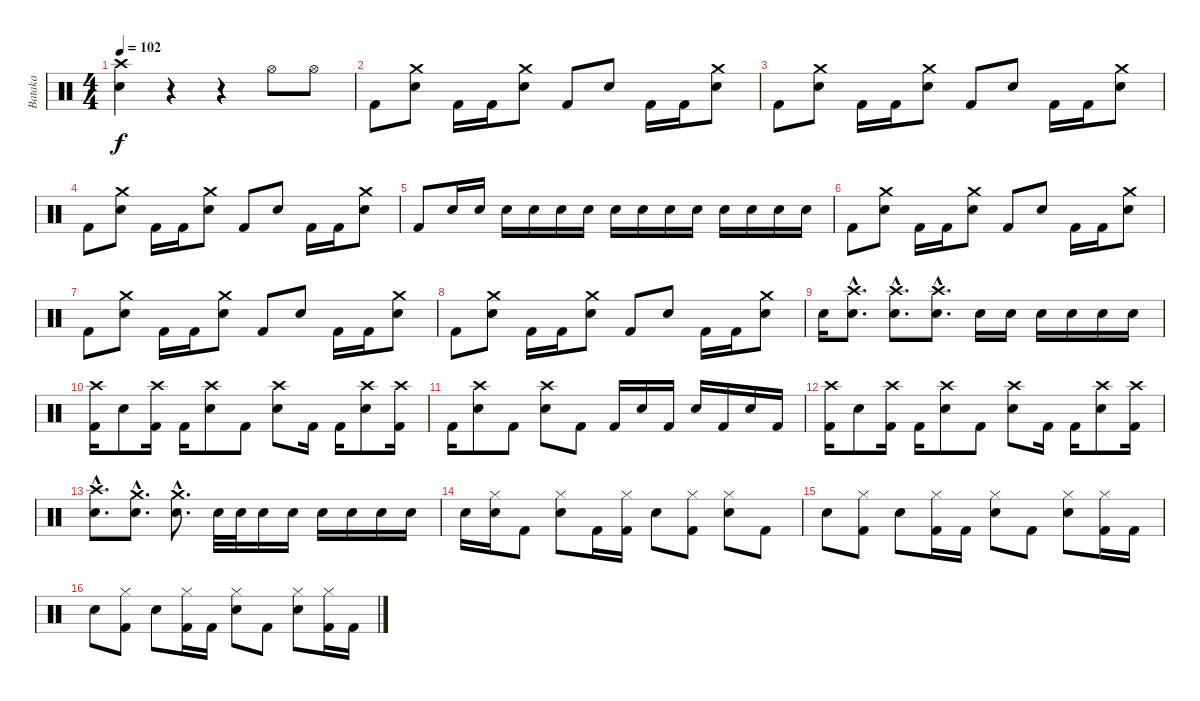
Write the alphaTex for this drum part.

\track ("Bataka" "Bataka") {instrument percussion}
\staff {score}
\articulation defaults
\ts (4 4)
\tempo 102
\clef neutral
\ks c
("Snare (hit) 2" "Crash high (hit)").4{dy f} r.4 r.4 "Hi-Hat (open)".8 "Hi-Hat (open)".8 |
"Kick (hit) 2".8 ("Crash medium (hit)" "Snare (hit) 2").8 "Kick (hit) 2".16 "Kick (hit) 2".16 ("Crash medium (hit)" "Snare (hit) 2").8 "Kick (hit) 2".8 "Snare (hit) 2".8 "Kick (hit) 2".16 "Kick (hit) 2".16 ("Crash medium (hit)" "Snare (hit) 2").8 |
"Kick (hit) 2".8 ("Crash medium (hit)" "Snare (hit) 2").8 "Kick (hit) 2".16 "Kick (hit) 2".16 ("Crash medium (hit)" "Snare (hit) 2").8 "Kick (hit) 2".8 "Snare (hit) 2".8 "Kick (hit) 2".16 "Kick (hit) 2".16 ("Crash medium (hit)" "Snare (hit) 2").8 |
"Kick (hit) 2".8 ("Crash medium (hit)" "Snare (hit) 2").8 "Kick (hit) 2".16 "Kick (hit) 2".16 ("Crash medium (hit)" "Snare (hit) 2").8 "Kick (hit) 2".8 "Snare (hit) 2".8 "Kick (hit) 2".16 "Kick (hit) 2".16 ("Crash medium (hit)" "Snare (hit) 2").8 |
"Kick (hit) 2".8 "Snare (hit) 2".16 "Snare (hit) 2".16 "Snare (hit) 2".16 "Snare (hit) 2".16 "Snare (hit) 2".16 "Snare (hit) 2".16 "Snare (hit) 2".16 "Snare (hit) 2".16 "Snare (hit) 2".16 "Snare (hit) 2".16 "Snare (hit) 2".16 "Snare (hit) 2".16 "Snare (hit) 2".16 "Snare (hit) 2".16 |
"Kick (hit) 2".8 ("Crash medium (hit)" "Snare (hit) 2").8 "Kick (hit) 2".16 "Kick (hit) 2".16 ("Crash medium (hit)" "Snare (hit) 2").8 "Kick (hit) 2".8 "Snare (hit) 2".8 "Kick (hit) 2".16 "Kick (hit) 2".16 ("Crash medium (hit)" "Snare (hit) 2").8 |
"Kick (hit) 2".8 ("Crash medium (hit)" "Snare (hit) 2").8 "Kick (hit) 2".16 "Kick (hit) 2".16 ("Crash medium (hit)" "Snare (hit) 2").8 "Kick (hit) 2".8 "Snare (hit) 2".8 "Kick (hit) 2".16 "Kick (hit) 2".16 ("Crash medium (hit)" "Snare (hit) 2").8 |
"Kick (hit) 2".8 ("Crash medium (hit)" "Snare (hit) 2").8 "Kick (hit) 2".16 "Kick (hit) 2".16 ("Crash medium (hit)" "Snare (hit) 2").8 "Kick (hit) 2".8 "Snare (hit) 2".8 "Kick (hit) 2".16 "Kick (hit) 2".16 ("Crash medium (hit)" "Snare (hit) 2").8 |
"Snare (hit) 2".16 ("Crash high (hit)"{hac} "Snare (hit) 2"{hac}).8{d} ("Crash high (hit)"{hac} "Snare (hit) 2"{hac}).8{d} ("Crash high (hit)"{hac} "Snare (hit) 2"{hac}).8{d} "Snare (hit) 2".16 "Snare (hit) 2".16 "Snare (hit) 2".16 "Snare (hit) 2".16 "Snare (hit) 2".16 "Snare (hit) 2".16 |
("Kick (hit) 2" "Crash high (hit)").16 "Snare (hit) 2".8 ("Kick (hit) 2" "Crash high (hit)").16 "Kick (hit) 2".16 ("Snare (hit) 2" "Crash high (hit)").8 "Kick (hit) 2".8 ("Snare (hit) 2" "Crash high (hit)").8 "Kick (hit) 2".16 "Kick (hit) 2".16 ("Snare (hit) 2" "Crash high (hit)").8 ("Kick (hit) 2" "Crash high (hit)").16 |
"Kick (hit) 2".16 ("Snare (hit) 2" "Crash high (hit)").8 "Kick (hit) 2".8 ("Snare (hit) 2" "Crash high (hit)").8 "Kick (hit) 2".8 "Kick (hit) 2".16 "Snare (hit) 2".16 "Kick (hit) 2".16 "Snare (hit) 2".16 "Kick (hit) 2".16 "Snare (hit) 2".16 "Kick (hit) 2".16 |
("Kick (hit) 2" "Crash high (hit)").16 "Snare (hit) 2".8 ("Kick (hit) 2" "Crash high (hit)").16 "Kick (hit) 2".16 ("Snare (hit) 2" "Crash high (hit)").8 "Kick (hit) 2".8 ("Snare (hit) 2" "Crash high (hit)").8 "Kick (hit) 2".16 "Kick (hit) 2".16 ("Snare (hit) 2" "Crash high (hit)").8 ("Kick (hit) 2" "Crash high (hit)").16 |
("Snare (hit) 2"{hac} "Crash high (hit)"{hac}).8{d} ("Snare (hit) 2"{hac} "Crash medium (hit)"{hac}).8{d} ("Snare (hit) 2"{hac} "Crash medium (hit)"{hac}).8{d} "Snare (hit) 2".32 "Snare (hit) 2".32 "Snare (hit) 2".16 "Snare (hit) 2".16 "Snare (hit) 2".16 "Snare (hit) 2".16 "Snare (hit) 2".16 "Snare (hit) 2".16 |
"Snare (hit) 2".16 ("Hi-Hat (closed)" "Snare (hit) 2").16 "Kick (hit) 2".8 ("Hi-Hat (closed)" "Snare (hit) 2").8 "Kick (hit) 2".16 ("Hi-Hat (closed)" "Kick (hit) 2").16 "Snare (hit) 2".8 ("Hi-Hat (closed)" "Kick (hit) 2").8 ("Hi-Hat (closed)" "Snare (hit) 2").8 "Kick (hit) 2".8 |
"Snare (hit) 2".8 ("Hi-Hat (closed)" "Kick (hit) 2").8 "Snare (hit) 2".8 ("Hi-Hat (closed)" "Kick (hit) 2").16 "Kick (hit) 2".16 ("Hi-Hat (closed)" "Snare (hit) 2").8 "Kick (hit) 2".8 ("Hi-Hat (closed)" "Snare (hit) 2").8 ("Hi-Hat (closed)" "Kick (hit) 2").16 "Kick (hit) 2".16 |
"Snare (hit) 2".8 ("Hi-Hat (closed)" "Kick (hit) 2").8 "Snare (hit) 2".8 ("Hi-Hat (closed)" "Kick (hit) 2").16 "Kick (hit) 2".16 ("Hi-Hat (closed)" "Snare (hit) 2").8 "Kick (hit) 2".8 ("Hi-Hat (closed)" "Snare (hit) 2").8 ("Hi-Hat (closed)" "Kick (hit) 2").16 "Kick (hit) 2".16
